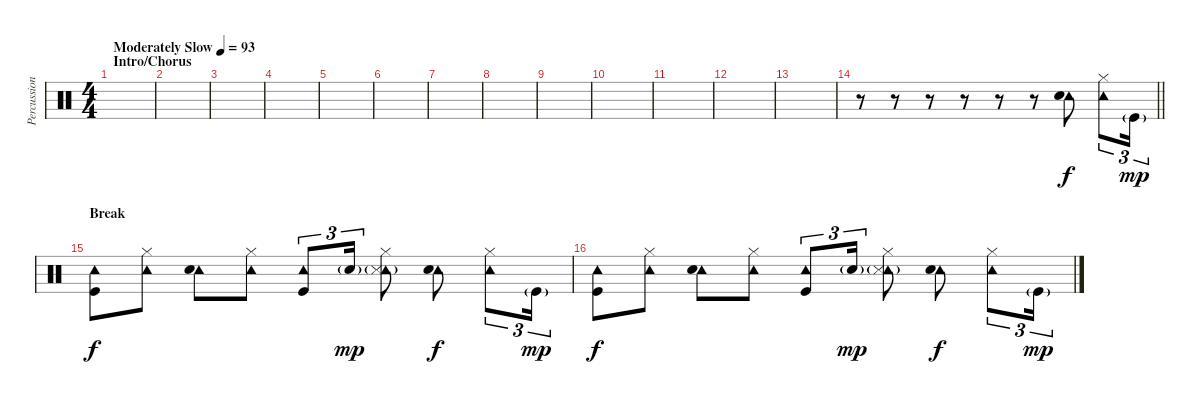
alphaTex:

\track ("Percussion" "Percussion") {instrument percussion}
\staff {score}
\articulation defaults
\ts (4 4)
\section ("" "Intro/Chorus")
\tempo (93 "Moderately Slow")
\clef neutral
\ks c
|
|
|
|
|
|
|
|
|
|
|
|
|
\barLineRight lightlight
r.8 r.8 r.8 r.8 r.8 r.8 ("Tambourine (hit)" "Electric Snare (hit)").8 ("Tambourine (hit)" "Hi-Hat (closed)").8{tu (3 2)} "Kick (hit)"{g}.16{tu (3 2) dy mp} |
\section ("" "Break")
("Tambourine (hit)" "Kick (hit)").8{dy f} ("Tambourine (hit)" "Hi-Hat (closed)").8 ("Tambourine (hit)" "Electric Snare (hit)").8 ("Tambourine (hit)" "Hi-Hat (closed)").8 ("Tambourine (hit)" "Kick (hit)").8{tu (3 2)} "Electric Snare (hit)"{g}.16{tu (3 2) dy mp} ("Tambourine (hit)" "Hi-Hat (closed)" "Snare (side stick) 3"{g}).8 ("Tambourine (hit)" "Electric Snare (hit)").8{dy f} ("Tambourine (hit)" "Hi-Hat (closed)").8{tu (3 2)} "Kick (hit)"{g}.16{tu (3 2) dy mp} |
("Tambourine (hit)" "Kick (hit)").8{dy f} ("Tambourine (hit)" "Hi-Hat (closed)").8 ("Tambourine (hit)" "Electric Snare (hit)").8 ("Tambourine (hit)" "Hi-Hat (closed)").8 ("Tambourine (hit)" "Kick (hit)").8{tu (3 2)} "Electric Snare (hit)"{g}.16{tu (3 2) dy mp} ("Tambourine (hit)" "Hi-Hat (closed)" "Snare (side stick) 3"{g}).8 ("Tambourine (hit)" "Electric Snare (hit)").8{dy f} ("Tambourine (hit)" "Hi-Hat (closed)").8{tu (3 2)} "Kick (hit)"{g}.16{tu (3 2) dy mp}
